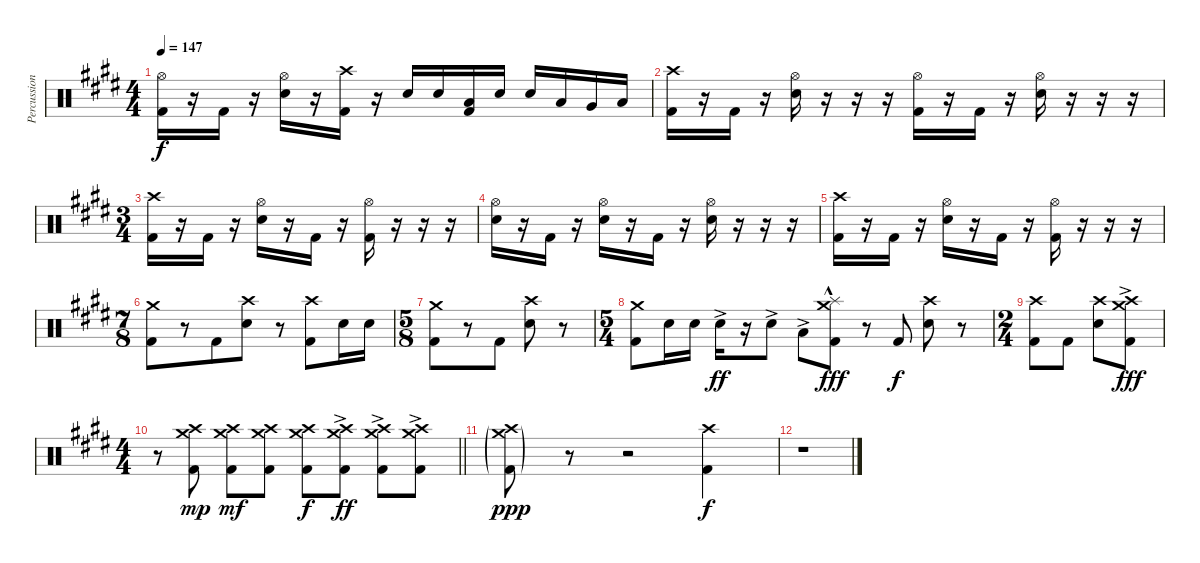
\track ("Percussion" "Percussion") {instrument percussion}
\staff {score}
\articulation defaults
\ts (4 4)
\tempo 147
\clef neutral
\ks e
("Hi-Hat (open)" "Kick (hit) 2").16{dy f} r.16 "Kick (hit) 2".16 r.16 ("Hi-Hat (open)" "Snare (hit) 2").16 r.16 ("Crash high (hit)" "Kick (hit) 2").16 r.16 "Snare (hit) 2".16 "Snare (hit) 2".16 ("Low Tom (hit)" "Kick (hit) 2").16 "Snare (hit) 2".16 "Snare (hit) 2".16 "Low Tom (hit)".16 "Very Low Tom (hit)".16 "Low Floor Tom (hit)".16 |
("Crash high (hit)" "Kick (hit) 2").16 r.16 "Kick (hit) 2".16 r.16 ("Hi-Hat (open)" "Snare (hit) 2").16 r.16 r.16 r.16 ("Hi-Hat (open)" "Kick (hit) 2").16 r.16 "Kick (hit) 2".16 r.16 ("Hi-Hat (open)" "Snare (hit) 2").16 r.16 r.16 r.16 |
\ts (3 4)
("Crash high (hit)" "Kick (hit) 2").16 r.16 "Kick (hit) 2".16 r.16 ("Hi-Hat (open)" "Snare (hit) 2").16 r.16 "Kick (hit) 2".16 r.16 ("Hi-Hat (open)" "Kick (hit) 2").16 r.16 r.16 r.16 |
("Hi-Hat (open)" "Snare (hit) 2").16 r.16 "Kick (hit) 2".16 r.16 ("Hi-Hat (open)" "Snare (hit) 2").16 r.16 "Kick (hit) 2".16 r.16 ("Hi-Hat (open)" "Snare (hit) 2").16 r.16 r.16 r.16 |
("Crash high (hit)" "Kick (hit) 2").16 r.16 "Kick (hit) 2".16 r.16 ("Hi-Hat (open)" "Snare (hit) 2").16 r.16 "Kick (hit) 2".16 r.16 ("Hi-Hat (open)" "Kick (hit) 2").16 r.16 r.16 r.16 |
\ts (7 8)
("Crash medium (hit)" "Kick (hit) 2").8 r.8 "Kick (hit) 2".8 ("Crash high (hit)" "Snare (hit) 2").8 r.8 ("Crash high (hit)" "Kick (hit) 2").8 "Snare (hit) 2".16 "Snare (hit) 2".16 |
\ts (5 8)
("Crash medium (hit)" "Kick (hit) 2").8 r.8 "Kick (hit) 2".8 ("Crash high (hit)" "Snare (hit) 2").8 r.8 |
\ts (5 4)
("Crash medium (hit)" "Kick (hit) 2").8 "Snare (hit) 2".16 "Snare (hit) 2".16 "Snare (hit) 2"{ac}.16{dy ff} r.16 "Snare (hit) 2"{ac}.8 "Low Tom (hit)"{ac}.8 ("Crash medium (hit)"{hac} "Splash (hit)" "Kick (hit) 2"{hac}).8{dy fff} r.8 "Kick (hit) 2".8{dy f} ("Crash high (hit)" "Snare (hit) 2").8 r.8 |
\ts (2 4)
("Crash high (hit)" "Kick (hit) 2").8 "Kick (hit) 2".8 ("Crash high (hit)" "Snare (hit) 2").8 ("Crash medium (hit)"{ac} "Crash high (hit)"{ac} "Kick (hit) 2"{ac}).8{dy fff} |
\ts (4 4)
\barLineRight lightlight
r.8 ("Crash medium (hit)" "Crash high (hit)" "Kick (hit) 2").8{dy mp} ("Crash medium (hit)" "Crash high (hit)" "Kick (hit) 2").8{dy mf} ("Crash medium (hit)" "Crash high (hit)" "Kick (hit) 2").8 ("Crash medium (hit)" "Crash high (hit)" "Kick (hit) 2").8{dy f} ("Crash medium (hit)"{ac} "Crash high (hit)"{ac} "Kick (hit) 2"{ac}).8{dy ff} ("Crash medium (hit)"{ac} "Crash high (hit)"{ac} "Kick (hit) 2"{ac}).8 ("Crash medium (hit)"{ac} "Crash high (hit)"{ac} "Kick (hit) 2"{ac}).8 |
("Crash medium (hit)"{g} "Crash high (hit)"{g} "Kick (hit) 2"{g}).8{dy ppp} r.8 r.2 ("Crash high (hit)" "Kick (hit) 2").4{dy f} |
r.1
